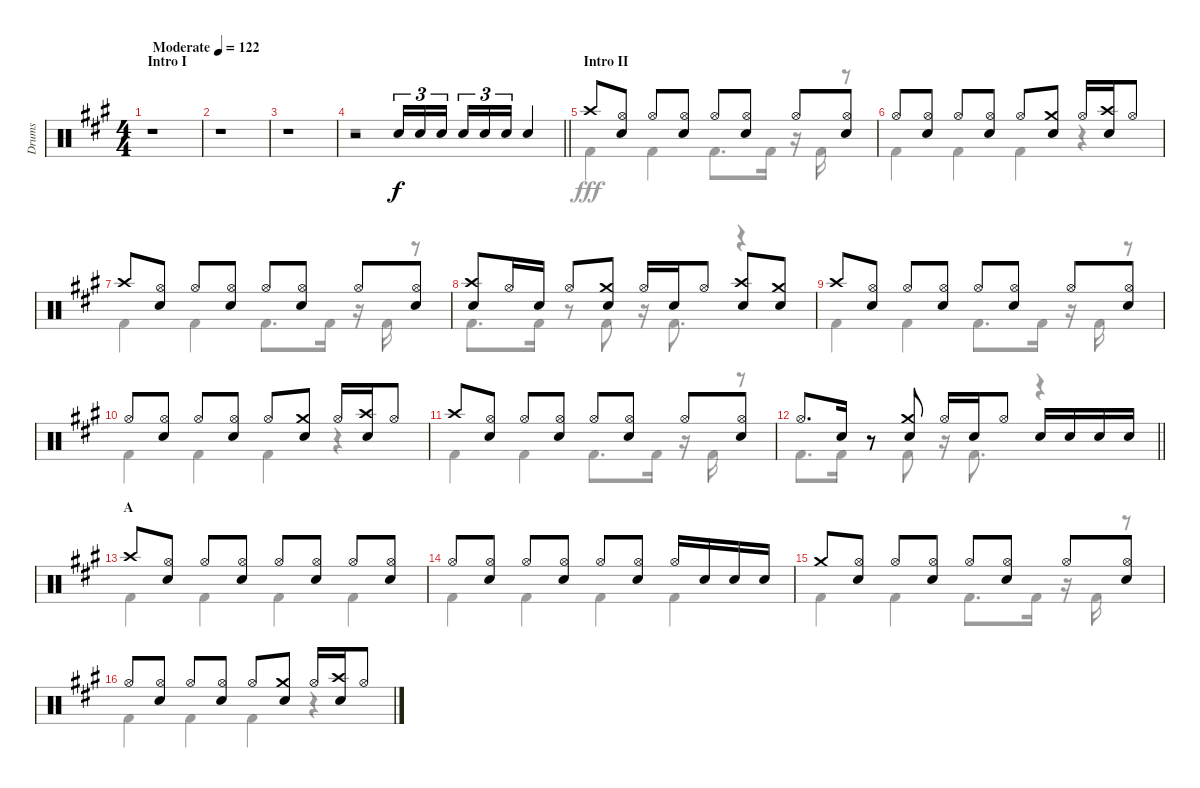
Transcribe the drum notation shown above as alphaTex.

\track ("Drums" "Drums") {instrument percussion}
\staff {score}
\articulation defaults
\voice
\ts (4 4)
\section ("" "Intro I")
\tempo (122 "Moderate")
\clef neutral
\ks a
r.1{dy f} |
r.1 |
r.1 |
\barLineRight lightlight
r.2 "Snare (hit) 2".16{tu (3 2)} "Snare (hit) 2".16{tu (3 2)} "Snare (hit) 2".16{tu (3 2) beam splitsecondary} "Snare (hit) 2".16{tu (3 2)} "Snare (hit) 2".16{tu (3 2)} "Snare (hit) 2".16{tu (3 2)} "Snare (hit) 2".4 |
\section ("" "Intro II")
"Crash high (hit)".8 ("Hi-Hat (open)" "Snare (hit) 2").8 "Hi-Hat (open)".8 ("Hi-Hat (open)" "Snare (hit) 2").8 "Hi-Hat (open)".8 ("Hi-Hat (open)" "Snare (hit) 2").8 "Hi-Hat (open)".8 ("Hi-Hat (open)" "Snare (hit) 2").8 |
"Hi-Hat (open)".8 ("Hi-Hat (open)" "Snare (hit) 2").8 "Hi-Hat (open)".8 ("Hi-Hat (open)" "Snare (hit) 2").8 "Hi-Hat (open)".8 ("Crash medium (hit)" "Snare (hit) 2").8 "Hi-Hat (open)".16 ("Crash high (hit)" "Snare (hit) 2").16 "Hi-Hat (open)".8 |
"Crash high (hit)".8 ("Hi-Hat (open)" "Snare (hit) 2").8 "Hi-Hat (open)".8 ("Hi-Hat (open)" "Snare (hit) 2").8 "Hi-Hat (open)".8 ("Hi-Hat (open)" "Snare (hit) 2").8 "Hi-Hat (open)".8 ("Hi-Hat (open)" "Snare (hit) 2").8 |
("Crash high (hit)" "Snare (hit) 2").8 "Hi-Hat (open)".16 "Snare (hit) 2".16 "Hi-Hat (open)".8 ("Crash medium (hit)" "Snare (hit) 2").8 "Hi-Hat (open)".16 "Snare (hit) 2".16 "Hi-Hat (open)".8 ("Crash high (hit)" "Snare (hit) 2").8 ("Crash medium (hit)" "Snare (hit) 2").8 |
"Crash high (hit)".8 ("Hi-Hat (open)" "Snare (hit) 2").8 "Hi-Hat (open)".8 ("Hi-Hat (open)" "Snare (hit) 2").8 "Hi-Hat (open)".8 ("Hi-Hat (open)" "Snare (hit) 2").8 "Hi-Hat (open)".8 ("Hi-Hat (open)" "Snare (hit) 2").8 |
"Hi-Hat (open)".8 ("Hi-Hat (open)" "Snare (hit) 2").8 "Hi-Hat (open)".8 ("Hi-Hat (open)" "Snare (hit) 2").8 "Hi-Hat (open)".8 ("Crash medium (hit)" "Snare (hit) 2").8 "Hi-Hat (open)".16 ("Crash high (hit)" "Snare (hit) 2").16 "Hi-Hat (open)".8 |
"Crash high (hit)".8 ("Hi-Hat (open)" "Snare (hit) 2").8 "Hi-Hat (open)".8 ("Hi-Hat (open)" "Snare (hit) 2").8 "Hi-Hat (open)".8 ("Hi-Hat (open)" "Snare (hit) 2").8 "Hi-Hat (open)".8 ("Hi-Hat (open)" "Snare (hit) 2").8 |
\barLineRight lightlight "Hi-Hat (open)".8{d} "Snare (hit) 2".16
r.8 ("Crash medium (hit)" "Snare (hit) 2").8 "Hi-Hat (open)".16 "Snare (hit) 2".16 "Hi-Hat (open)".8 "Snare (hit) 2".16 "Snare (hit) 2".16 "Snare (hit) 2".16 "Snare (hit) 2".16 |
\section ("" "A")
"Crash high (hit)".8 ("Hi-Hat (open)" "Snare (hit) 2").8 "Hi-Hat (open)".8 ("Hi-Hat (open)" "Snare (hit) 2").8 "Hi-Hat (open)".8 ("Hi-Hat (open)" "Snare (hit) 2").8 "Hi-Hat (open)".8 ("Hi-Hat (open)" "Snare (hit) 2").8 |
"Hi-Hat (open)".8 ("Hi-Hat (open)" "Snare (hit) 2").8 "Hi-Hat (open)".8 ("Hi-Hat (open)" "Snare (hit) 2").8 "Hi-Hat (open)".8 ("Hi-Hat (open)" "Snare (hit) 2").8 "Hi-Hat (open)".16 "Snare (hit) 2".16 "Snare (hit) 2".16 "Snare (hit) 2".16 |
"Crash medium (hit)".8 ("Hi-Hat (open)" "Snare (hit) 2").8 "Hi-Hat (open)".8 ("Hi-Hat (open)" "Snare (hit) 2").8 "Hi-Hat (open)".8 ("Hi-Hat (open)" "Snare (hit) 2").8 "Hi-Hat (open)".8 ("Hi-Hat (open)" "Snare (hit) 2").8 |
"Hi-Hat (open)".8 ("Hi-Hat (open)" "Snare (hit) 2").8 "Hi-Hat (open)".8 ("Hi-Hat (open)" "Snare (hit) 2").8 "Hi-Hat (open)".8 ("Crash medium (hit)" "Snare (hit) 2").8 "Hi-Hat (open)".16 ("Crash high (hit)" "Snare (hit) 2").16 "Hi-Hat (open)".8
\voice
\clef neutral
\ottava regular
\simile none
\ks a
r.1{dy fff} |
r.1 |
r.1 |
\barLineRight lightlight
r.1 |
"Kick (hit) 2".4 "Kick (hit) 2".4 "Kick (hit) 2".8{d} "Kick (hit) 2".16 r.16 "Kick (hit) 2".16 r.8 |
"Kick (hit) 2".4 "Kick (hit) 2".4 "Kick (hit) 2".4 r.4 |
"Kick (hit) 2".4 "Kick (hit) 2".4 "Kick (hit) 2".8{d} "Kick (hit) 2".16 r.16 "Kick (hit) 2".16 r.8 |
"Kick (hit) 2".8{d} "Kick (hit) 2".16 r.8 "Kick (hit) 2".8 r.16 "Kick (hit) 2".8{d} r.4 |
"Kick (hit) 2".4 "Kick (hit) 2".4 "Kick (hit) 2".8{d} "Kick (hit) 2".16 r.16 "Kick (hit) 2".16 r.8 |
"Kick (hit) 2".4 "Kick (hit) 2".4 "Kick (hit) 2".4 r.4 |
"Kick (hit) 2".4 "Kick (hit) 2".4 "Kick (hit) 2".8{d} "Kick (hit) 2".16 r.16 "Kick (hit) 2".16 r.8 |
\barLineRight lightlight "Kick (hit) 2".8{d} "Kick (hit) 2".16
r.8 "Kick (hit) 2".8 r.16 "Kick (hit) 2".8{d} r.4 |
"Kick (hit) 2".4 "Kick (hit) 2".4 "Kick (hit) 2".4 "Kick (hit) 2".4 |
"Kick (hit) 2".4 "Kick (hit) 2".4 "Kick (hit) 2".4 "Kick (hit) 2".4 |
"Kick (hit) 2".4 "Kick (hit) 2".4 "Kick (hit) 2".8{d} "Kick (hit) 2".16 r.16 "Kick (hit) 2".16 r.8 |
"Kick (hit) 2".4 "Kick (hit) 2".4 "Kick (hit) 2".4 r.4
